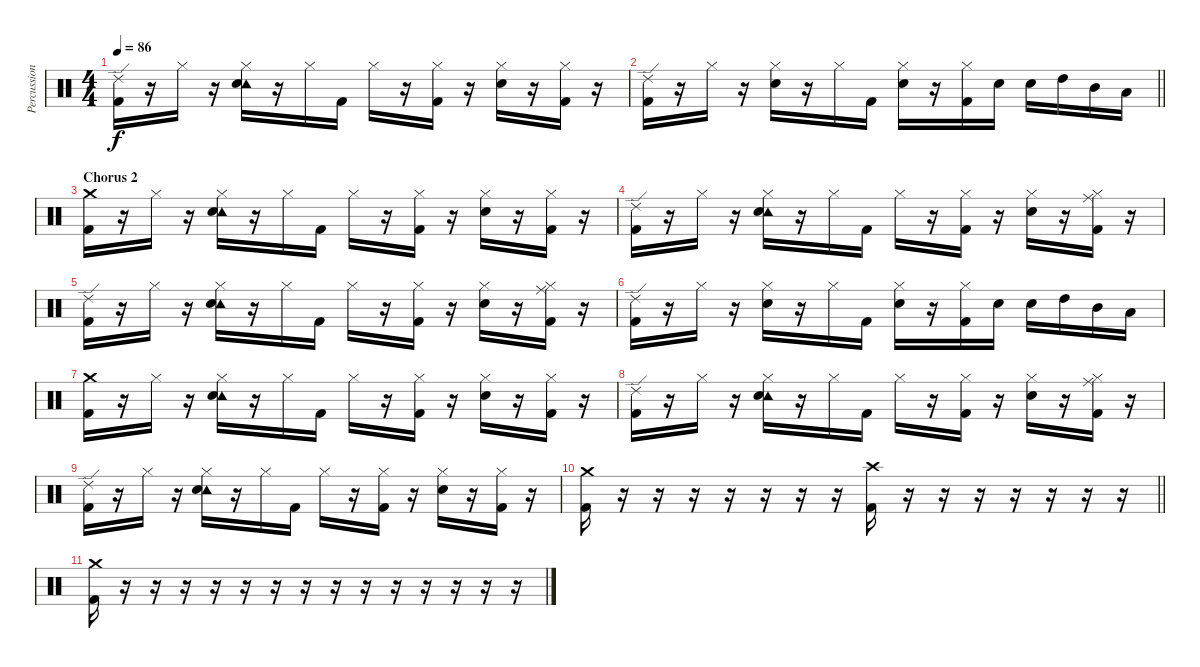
\track ("Percussion" "Percussion") {instrument percussion}
\staff {score}
\articulation defaults
\ts (4 4)
\tempo 86
\clef neutral
\ks c
("Ride (edge) 2" "Kick (hit) 2").16{dy f} r.16 "Hi-Hat (closed)".16 r.16 ("Hi-Hat (closed)" "Tambourine (hit)" "Snare (hit) 2").16 r.16 "Hi-Hat (closed)".16 "Kick (hit) 2".16 "Hi-Hat (closed)".16 r.16 ("Hi-Hat (closed)" "Kick (hit) 2").16 r.16 ("Hi-Hat (closed)" "Snare (hit) 2").16 r.16 ("Hi-Hat (closed)" "Kick (hit) 2").16 r.16 |
\barLineRight lightlight
("Ride (edge) 2" "Kick (hit) 2").16 r.16 "Hi-Hat (closed)".16 r.16 ("Hi-Hat (closed)" "Snare (hit) 2").16 r.16 "Hi-Hat (closed)".16 "Kick (hit) 2".16 ("Hi-Hat (closed)" "Snare (hit) 2").16 r.16 ("Hi-Hat (closed)" "Kick (hit) 2").16 "Snare (hit) 2".16 "Snare (hit) 2".16 "High Tom (hit)".16 "Mid Tom (hit)".16 "Low Tom (hit)".16 |
\section ("" "Chorus 2")
("Crash medium (hit)" "Kick (hit) 2").16 r.16 "Hi-Hat (closed)".16 r.16 ("Hi-Hat (closed)" "Tambourine (hit)" "Snare (hit) 2").16 r.16 "Hi-Hat (closed)".16 "Kick (hit) 2".16 "Hi-Hat (closed)".16 r.16 ("Hi-Hat (closed)" "Kick (hit) 2").16 r.16 ("Hi-Hat (closed)" "Snare (hit) 2").16 r.16 ("Hi-Hat (closed)" "Kick (hit) 2").16 r.16 |
("Ride (edge) 2" "Kick (hit) 2").16 r.16 "Hi-Hat (closed)".16 r.16 ("Hi-Hat (closed)" "Tambourine (hit)" "Snare (hit) 2").16 r.16 "Hi-Hat (closed)".16 "Kick (hit) 2".16 "Hi-Hat (closed)".16 r.16 ("Hi-Hat (closed)" "Kick (hit) 2").16 r.16 ("Hi-Hat (closed)" "Snare (hit) 2").16 r.16 ("Ride (middle)" "Hi-Hat (closed)" "Kick (hit) 2").16 r.16 |
("Ride (edge) 2" "Kick (hit) 2").16 r.16 "Hi-Hat (closed)".16 r.16 ("Hi-Hat (closed)" "Tambourine (hit)" "Snare (hit) 2").16 r.16 "Hi-Hat (closed)".16 "Kick (hit) 2".16 "Hi-Hat (closed)".16 r.16 ("Hi-Hat (closed)" "Kick (hit) 2").16 r.16 ("Hi-Hat (closed)" "Snare (hit) 2").16 r.16 ("Ride (middle)" "Hi-Hat (closed)" "Kick (hit) 2").16 r.16 |
("Ride (edge) 2" "Kick (hit) 2").16 r.16 "Hi-Hat (closed)".16 r.16 ("Hi-Hat (closed)" "Snare (hit) 2").16 r.16 "Hi-Hat (closed)".16 "Kick (hit) 2".16 ("Hi-Hat (closed)" "Snare (hit) 2").16 r.16 ("Hi-Hat (closed)" "Kick (hit) 2").16 "Snare (hit) 2".16 "Snare (hit) 2".16 "High Tom (hit)".16 "Mid Tom (hit)".16 "Low Tom (hit)".16 |
("Crash medium (hit)" "Kick (hit) 2").16 r.16 "Hi-Hat (closed)".16 r.16 ("Hi-Hat (closed)" "Tambourine (hit)" "Snare (hit) 2").16 r.16 "Hi-Hat (closed)".16 "Kick (hit) 2".16 "Hi-Hat (closed)".16 r.16 ("Hi-Hat (closed)" "Kick (hit) 2").16 r.16 ("Hi-Hat (closed)" "Snare (hit) 2").16 r.16 ("Hi-Hat (closed)" "Kick (hit) 2").16 r.16 |
("Ride (edge) 2" "Kick (hit) 2").16 r.16 "Hi-Hat (closed)".16 r.16 ("Hi-Hat (closed)" "Tambourine (hit)" "Snare (hit) 2").16 r.16 "Hi-Hat (closed)".16 "Kick (hit) 2".16 "Hi-Hat (closed)".16 r.16 ("Hi-Hat (closed)" "Kick (hit) 2").16 r.16 ("Hi-Hat (closed)" "Snare (hit) 2").16 r.16 ("Ride (middle)" "Hi-Hat (closed)" "Kick (hit) 2").16 r.16 |
("Ride (edge) 2" "Kick (hit) 2").16 r.16 "Hi-Hat (closed)".16 r.16 ("Hi-Hat (closed)" "Tambourine (hit)" "Snare (hit) 2").16 r.16 "Hi-Hat (closed)".16 "Kick (hit) 2".16 "Hi-Hat (closed)".16 r.16 ("Hi-Hat (closed)" "Kick (hit) 2").16 r.16 ("Hi-Hat (closed)" "Snare (hit) 2").16 r.16 ("Hi-Hat (closed)" "Kick (hit) 2").16 r.16 |
\barLineRight lightlight
("Crash medium (hit)" "Kick (hit) 2").16 r.16 r.16 r.16 r.16 r.16 r.16 r.16 ("Crash high (hit)" "Kick (hit) 2").16 r.16 r.16 r.16 r.16 r.16 r.16 r.16 |
("Crash medium (hit)" "Kick (hit) 2").16 r.16 r.16 r.16 r.16 r.16 r.16 r.16 r.16 r.16 r.16 r.16 r.16 r.16 r.16
